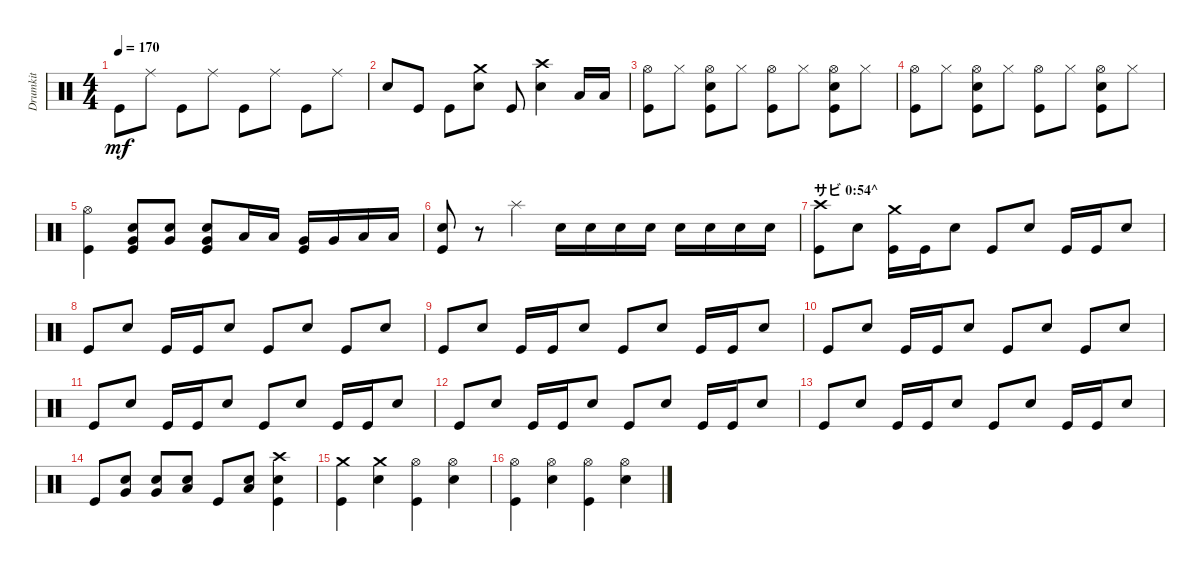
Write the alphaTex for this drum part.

\track ("Drumkit" "Drumkit") {instrument percussion}
\staff {score}
\articulation defaults
\ts (4 4)
\tempo 170
\clef neutral
\ks c "Kick (hit)".8{dy mf} "Ride (middle)".8 "Kick (hit)".8 "Ride (middle)".8 "Kick (hit)".8 "Ride (middle)".8 "Kick (hit)".8 "Ride (middle)".8
|
"Snare (hit) 2".8 "Kick (hit)".8 "Kick (hit)".8 ("Crash medium (hit)" "Snare (hit) 2").8 "Kick (hit)".8 ("Snare (hit) 2" "Crash high (hit)").4 "Low Tom (hit)".16 "Low Tom (hit)".16 |
("Hi-Hat (open)" "Kick (hit)").8 "Hi-Hat (closed)".8 ("Hi-Hat (open)" "Snare (hit) 2" "Kick (hit)").8 "Hi-Hat (closed)".8 ("Kick (hit)" "Hi-Hat (open)").8 "Hi-Hat (closed)".8 ("Snare (hit) 2" "Hi-Hat (open)" "Kick (hit)").8 "Hi-Hat (closed)".8 |
("Hi-Hat (open)" "Kick (hit)").8 "Hi-Hat (closed)".8 ("Hi-Hat (open)" "Snare (hit) 2" "Kick (hit)").8 "Hi-Hat (closed)".8 ("Kick (hit)" "Hi-Hat (open)").8 "Hi-Hat (closed)".8 ("Snare (hit) 2" "Hi-Hat (open)" "Kick (hit)").8 "Hi-Hat (closed)".8 |
("Hi-Hat (open)" "Kick (hit)").4 ("Snare (hit) 2" "Kick (hit)" "Very Low Tom (hit)").8 ("Snare (hit) 2" "Very Low Tom (hit)").8 ("Snare (hit) 2" "Very Low Tom (hit)" "Kick (hit)").8 "Low Tom (hit)".16 "Low Tom (hit)".16 ("Very Low Tom (hit)" "Kick (hit)").16 "Very Low Tom (hit)".16 "Low Floor Tom (hit)".16 "Low Floor Tom (hit)".16 |
("Snare (hit) 2" "Kick (hit)").8 r.8 "Splash (hit)".4 "Snare (hit) 2".16 "Snare (hit) 2".16 "Snare (hit) 2".16 "Snare (hit) 2".16 "Snare (hit) 2".16 "Snare (hit) 2".16 "Snare (hit) 2".16 "Snare (hit) 2".16 |
\section ("" "サビ 0:54^")
("Crash high (hit)" "Kick (hit)").8 "Snare (hit) 2".8 ("Kick (hit)" "Crash medium (hit)").16 "Kick (hit)".16 "Snare (hit) 2".8 "Kick (hit)".8 "Snare (hit) 2".8 "Kick (hit)".16 "Kick (hit)".16 "Snare (hit) 2".8 |
"Kick (hit)".8 "Snare (hit) 2".8 "Kick (hit)".16 "Kick (hit)".16 "Snare (hit) 2".8 "Kick (hit)".8 "Snare (hit) 2".8 "Kick (hit)".8 "Snare (hit) 2".8 |
"Kick (hit)".8 "Snare (hit) 2".8 "Kick (hit)".16 "Kick (hit)".16 "Snare (hit) 2".8 "Kick (hit)".8 "Snare (hit) 2".8 "Kick (hit)".16 "Kick (hit)".16 "Snare (hit) 2".8 |
"Kick (hit)".8 "Snare (hit) 2".8 "Kick (hit)".16 "Kick (hit)".16 "Snare (hit) 2".8 "Kick (hit)".8 "Snare (hit) 2".8 "Kick (hit)".8 "Snare (hit) 2".8 |
"Kick (hit)".8 "Snare (hit) 2".8 "Kick (hit)".16 "Kick (hit)".16 "Snare (hit) 2".8 "Kick (hit)".8 "Snare (hit) 2".8 "Kick (hit)".16 "Kick (hit)".16 "Snare (hit) 2".8 |
"Kick (hit)".8 "Snare (hit) 2".8 "Kick (hit)".16 "Kick (hit)".16 "Snare (hit) 2".8 "Kick (hit)".8 "Snare (hit) 2".8 "Kick (hit)".16 "Kick (hit)".16 "Snare (hit) 2".8 |
"Kick (hit)".8 "Snare (hit) 2".8 "Kick (hit)".16 "Kick (hit)".16 "Snare (hit) 2".8 "Kick (hit)".8 "Snare (hit) 2".8 "Kick (hit)".16 "Kick (hit)".16 "Snare (hit) 2".8 |
"Kick (hit)".8 ("Snare (hit) 2" "Very Low Tom (hit)").8 ("Snare (hit) 2" "Very Low Tom (hit)").8 ("Snare (hit) 2" "Low Floor Tom (hit)").8 "Kick (hit)".8 ("Snare (hit) 2" "Low Floor Tom (hit)").8 ("Crash high (hit)" "Kick (hit)" "Snare (hit) 2").4 |
("Crash medium (hit)" "Kick (hit)").4 ("Snare (hit) 2" "Crash medium (hit)").4 ("Kick (hit)" "Hi-Hat (open)").4 ("Snare (hit) 2" "Hi-Hat (open)").4 |
("Kick (hit)" "Hi-Hat (open)").4 ("Snare (hit) 2" "Hi-Hat (open)").4 ("Kick (hit)" "Hi-Hat (open)").4 ("Snare (hit) 2" "Hi-Hat (open)").4
